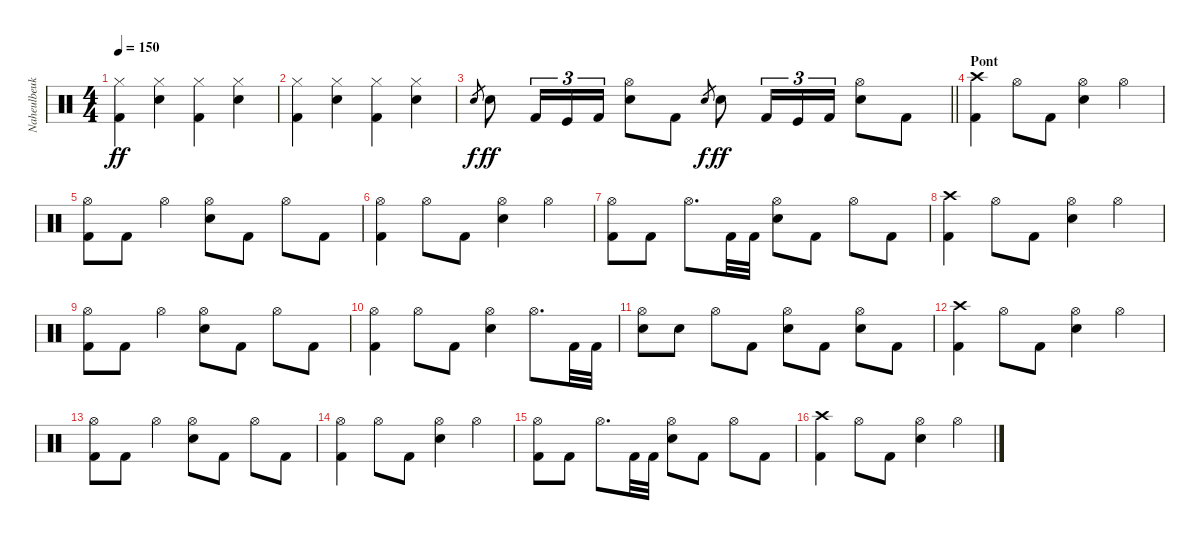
\track ("Naheulbeuk" "Naheulbeuk") {instrument percussion}
\staff {score}
\articulation defaults
\ts (4 4)
\tempo 150
\clef neutral
\ks c
("Hi-Hat (closed)" "Kick (hit) 2").4{dy ff} ("Hi-Hat (closed)" "Snare (hit) 2").4 ("Hi-Hat (closed)" "Kick (hit) 2").4 ("Hi-Hat (closed)" "Snare (hit) 2").4 |
("Hi-Hat (closed)" "Kick (hit) 2").4 ("Hi-Hat (closed)" "Snare (hit) 2").4 ("Hi-Hat (closed)" "Kick (hit) 2").4 ("Hi-Hat (closed)" "Snare (hit) 2").4 |
\barLineRight lightlight "Snare (hit) 2".8{gr dy f} "Snare (hit) 2".8{dy ff} "Kick (hit) 2".16{tu (3 2)} "Kick (hit)".16{tu (3 2)} "Kick (hit) 2".16{tu (3 2)}
("Hi-Hat (open)" "Snare (hit) 2").8 "Kick (hit) 2".8 "Snare (hit) 2".8{gr dy f} "Snare (hit) 2".8{dy ff} "Kick (hit) 2".16{tu (3 2)} "Kick (hit)".16{tu (3 2)} "Kick (hit) 2".16{tu (3 2)} ("Hi-Hat (open)" "Snare (hit) 2").8 "Kick (hit) 2".8 |
\section ("" "Pont")
("Crash high (hit)" "Kick (hit) 2").4 "Hi-Hat (open)".8 "Kick (hit) 2".8 ("Hi-Hat (open)" "Snare (hit) 2").4 "Hi-Hat (open)".4 |
("Hi-Hat (open)" "Kick (hit) 2").8 "Kick (hit) 2".8 "Hi-Hat (open)".4 ("Hi-Hat (open)" "Snare (hit) 2").8 "Kick (hit) 2".8 "Hi-Hat (open)".8 "Kick (hit) 2".8 |
("Hi-Hat (open)" "Kick (hit) 2").4 "Hi-Hat (open)".8 "Kick (hit) 2".8 ("Hi-Hat (open)" "Snare (hit) 2").4 "Hi-Hat (open)".4 |
("Hi-Hat (open)" "Kick (hit) 2").8 "Kick (hit) 2".8 "Hi-Hat (open)".8{d} "Kick (hit) 2".32 "Kick (hit) 2".32 ("Hi-Hat (open)" "Snare (hit) 2").8 "Kick (hit) 2".8 "Hi-Hat (open)".8 "Kick (hit) 2".8 |
("Crash high (hit)" "Kick (hit) 2").4 "Hi-Hat (open)".8 "Kick (hit) 2".8 ("Hi-Hat (open)" "Snare (hit) 2").4 "Hi-Hat (open)".4 |
("Hi-Hat (open)" "Kick (hit) 2").8 "Kick (hit) 2".8 "Hi-Hat (open)".4 ("Hi-Hat (open)" "Snare (hit) 2").8 "Kick (hit) 2".8 "Hi-Hat (open)".8 "Kick (hit) 2".8 |
("Hi-Hat (open)" "Kick (hit) 2").4 "Hi-Hat (open)".8 "Kick (hit) 2".8 ("Hi-Hat (open)" "Snare (hit) 2").4 "Hi-Hat (open)".8{d} "Kick (hit) 2".32 "Kick (hit) 2".32 |
("Hi-Hat (open)" "Snare (hit) 2").8 "Snare (hit) 2".8 "Hi-Hat (open)".8 "Kick (hit) 2".8 ("Hi-Hat (open)" "Snare (hit) 2").8 "Kick (hit) 2".8 ("Hi-Hat (open)" "Snare (hit) 2").8 "Kick (hit) 2".8 |
("Crash high (hit)" "Kick (hit) 2").4 "Hi-Hat (open)".8 "Kick (hit) 2".8 ("Hi-Hat (open)" "Snare (hit) 2").4 "Hi-Hat (open)".4 |
("Hi-Hat (open)" "Kick (hit) 2").8 "Kick (hit) 2".8 "Hi-Hat (open)".4 ("Hi-Hat (open)" "Snare (hit) 2").8 "Kick (hit) 2".8 "Hi-Hat (open)".8 "Kick (hit) 2".8 |
("Hi-Hat (open)" "Kick (hit) 2").4 "Hi-Hat (open)".8 "Kick (hit) 2".8 ("Hi-Hat (open)" "Snare (hit) 2").4 "Hi-Hat (open)".4 |
("Hi-Hat (open)" "Kick (hit) 2").8 "Kick (hit) 2".8 "Hi-Hat (open)".8{d} "Kick (hit) 2".32 "Kick (hit) 2".32 ("Hi-Hat (open)" "Snare (hit) 2").8 "Kick (hit) 2".8 "Hi-Hat (open)".8 "Kick (hit) 2".8 |
("Crash high (hit)" "Kick (hit) 2").4 "Hi-Hat (open)".8 "Kick (hit) 2".8 ("Hi-Hat (open)" "Snare (hit) 2").4 "Hi-Hat (open)".4
